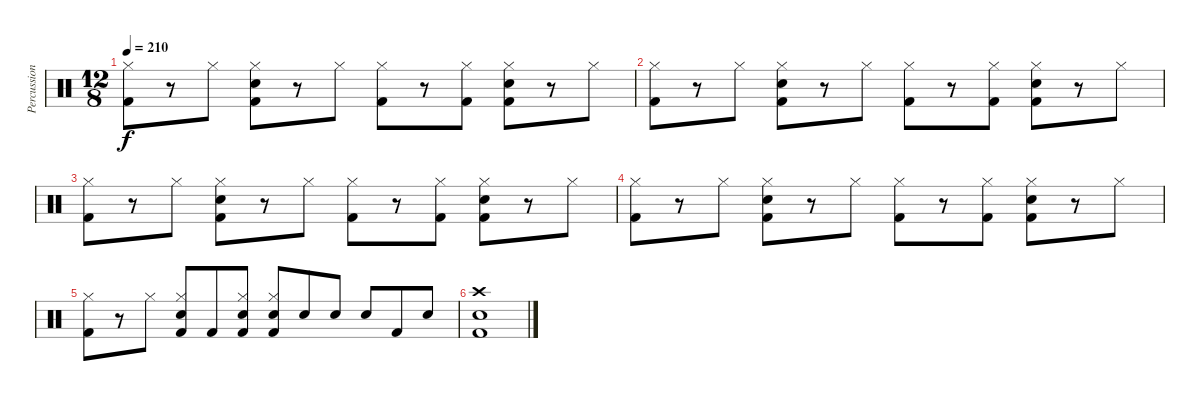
\track ("Percussions" "Percussion") {instrument percussion}
\staff {score}
\articulation defaults
\ts (12 8)
\tempo 210
\clef neutral
\ks c
("Kick (hit) 2" "Hi-Hat (closed)").8{dy f} r.8 "Hi-Hat (closed)".8 ("Snare (hit) 2" "Kick (hit) 2" "Hi-Hat (closed)").8 r.8 "Hi-Hat (closed)".8 ("Kick (hit) 2" "Hi-Hat (closed)").8 r.8 ("Kick (hit) 2" "Hi-Hat (closed)").8 ("Snare (hit) 2" "Kick (hit) 2" "Hi-Hat (closed)").8 r.8 "Hi-Hat (closed)".8 |
("Kick (hit) 2" "Hi-Hat (closed)").8 r.8 "Hi-Hat (closed)".8 ("Snare (hit) 2" "Kick (hit) 2" "Hi-Hat (closed)").8 r.8 "Hi-Hat (closed)".8 ("Kick (hit) 2" "Hi-Hat (closed)").8 r.8 ("Kick (hit) 2" "Hi-Hat (closed)").8 ("Snare (hit) 2" "Kick (hit) 2" "Hi-Hat (closed)").8 r.8 "Hi-Hat (closed)".8 |
("Kick (hit) 2" "Hi-Hat (closed)").8 r.8 "Hi-Hat (closed)".8 ("Snare (hit) 2" "Kick (hit) 2" "Hi-Hat (closed)").8 r.8 "Hi-Hat (closed)".8 ("Kick (hit) 2" "Hi-Hat (closed)").8 r.8 ("Kick (hit) 2" "Hi-Hat (closed)").8 ("Snare (hit) 2" "Kick (hit) 2" "Hi-Hat (closed)").8 r.8 "Hi-Hat (closed)".8 |
("Kick (hit) 2" "Hi-Hat (closed)").8 r.8 "Hi-Hat (closed)".8 ("Snare (hit) 2" "Kick (hit) 2" "Hi-Hat (closed)").8 r.8 "Hi-Hat (closed)".8 ("Kick (hit) 2" "Hi-Hat (closed)").8 r.8 ("Kick (hit) 2" "Hi-Hat (closed)").8 ("Snare (hit) 2" "Kick (hit) 2" "Hi-Hat (closed)").8 r.8 "Hi-Hat (closed)".8 |
("Kick (hit) 2" "Hi-Hat (closed)").8 r.8 "Hi-Hat (closed)".8 ("Snare (hit) 2" "Kick (hit) 2" "Hi-Hat (closed)").8 "Kick (hit) 2".8 ("Snare (hit) 2" "Kick (hit) 2" "Hi-Hat (closed)").8 ("Snare (hit) 2" "Kick (hit) 2" "Hi-Hat (closed)").8 "Snare (hit) 2".8 "Snare (hit) 2".8 "Snare (hit) 2".8 "Kick (hit) 2".8 "Snare (hit) 2".8 |
("Snare (hit) 2" "Kick (hit) 2" "Crash high (hit)").1
